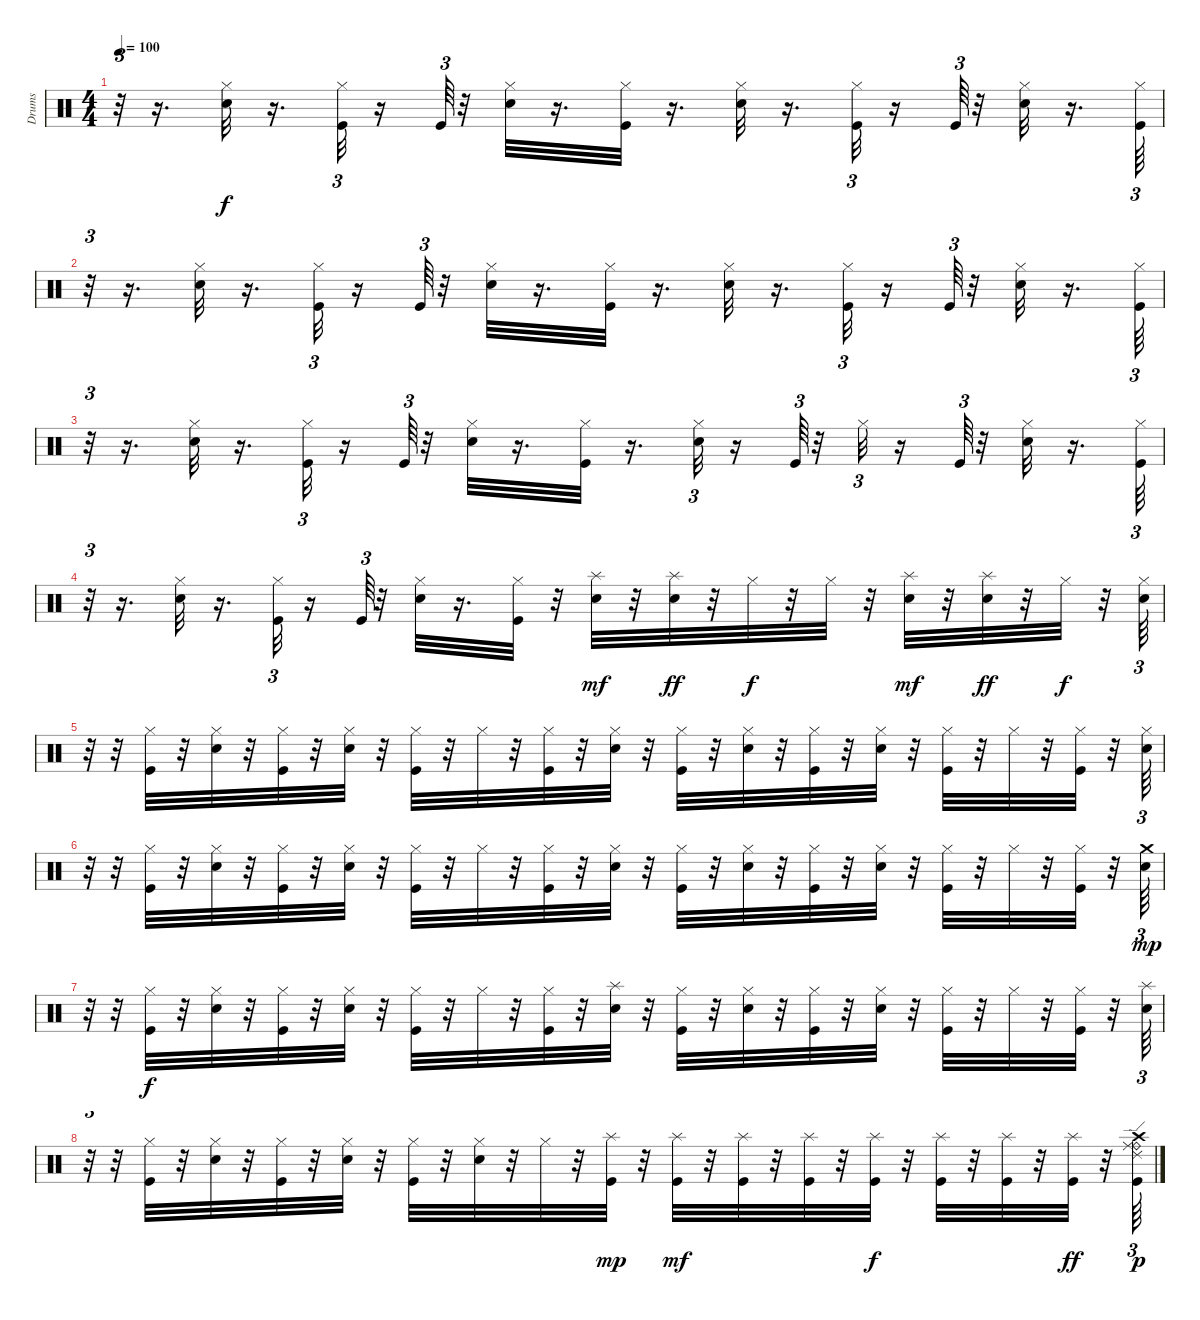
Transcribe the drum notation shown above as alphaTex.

\track ("Drums" "Drums") {instrument percussion}
\staff {score}
\articulation defaults
\ts (4 4)
\tempo 100
\clef neutral
\ks c
r.32{tu (3 2) dy mf} r.16{d} ("Snare (hit) 2" "Hi-Hat (closed)").32{dy f} r.16{d} ("Kick (hit)" "Hi-Hat (closed)").32{tu (3 2)} r.16 "Kick (hit)".64{tu (3 2)} r.32 ("Snare (hit) 2" "Hi-Hat (closed)").32 r.16{d} ("Kick (hit)" "Hi-Hat (closed)").32 r.16{d} ("Snare (hit) 2" "Hi-Hat (closed)").32 r.16{d} ("Kick (hit)" "Hi-Hat (closed)").32{tu (3 2)} r.16 "Kick (hit)".64{tu (3 2)} r.32 ("Snare (hit) 2" "Hi-Hat (closed)").32 r.16{d} ("Kick (hit)" "Hi-Hat (closed)").64{tu (3 2)} |
r.32{tu (3 2)} r.16{d} ("Snare (hit) 2" "Hi-Hat (closed)").32 r.16{d} ("Kick (hit)" "Hi-Hat (closed)").32{tu (3 2)} r.16 "Kick (hit)".64{tu (3 2)} r.32 ("Snare (hit) 2" "Hi-Hat (closed)").32 r.16{d} ("Kick (hit)" "Hi-Hat (closed)").32 r.16{d} ("Snare (hit) 2" "Hi-Hat (closed)").32 r.16{d} ("Kick (hit)" "Hi-Hat (closed)").32{tu (3 2)} r.16 "Kick (hit)".64{tu (3 2)} r.32 ("Snare (hit) 2" "Hi-Hat (closed)").32 r.16{d} ("Kick (hit)" "Hi-Hat (closed)").64{tu (3 2)} |
r.32{tu (3 2)} r.16{d} ("Snare (hit) 2" "Hi-Hat (closed)").32 r.16{d} ("Kick (hit)" "Hi-Hat (closed)").32{tu (3 2)} r.16 "Kick (hit)".64{tu (3 2)} r.32 ("Snare (hit) 2" "Hi-Hat (closed)").32 r.16{d} ("Kick (hit)" "Hi-Hat (closed)").32 r.16{d} ("Snare (hit) 2" "Hi-Hat (closed)").32{tu (3 2)} r.16 "Kick (hit)".64{tu (3 2)} r.32 "Hi-Hat (closed)".32{tu (3 2)} r.16 "Kick (hit)".64{tu (3 2)} r.32 ("Snare (hit) 2" "Hi-Hat (closed)").32 r.16{d} ("Kick (hit)" "Hi-Hat (closed)").64{tu (3 2)} |
r.32{tu (3 2)} r.16{d} ("Snare (hit) 2" "Hi-Hat (closed)").32 r.16{d} ("Kick (hit)" "Hi-Hat (closed)").32{tu (3 2)} r.16 "Kick (hit)".64{tu (3 2)} r.32 ("Snare (hit) 2" "Hi-Hat (closed)").32 r.16{d} ("Kick (hit)" "Hi-Hat (closed)").32 r.32 ("Snare (hit) 2" "Splash (hit)").32{dy mf} r.32 ("Snare (hit) 2" "Splash (hit)").32{dy ff} r.32 "Hi-Hat (closed)".32{dy f} r.32 "Hi-Hat (closed)".32 r.32 ("Snare (hit) 2" "Splash (hit)").32{dy mf} r.32 ("Snare (hit) 2" "Splash (hit)").32{dy ff} r.32 "Hi-Hat (closed)".32{dy f} r.32 ("Snare (hit) 2" "Hi-Hat (closed)").64{tu (3 2)} |
r.32{tu (3 2)} r.32 ("Kick (hit)" "Hi-Hat (closed)").32 r.32 ("Snare (hit) 2" "Hi-Hat (closed)").32 r.32 ("Kick (hit)" "Hi-Hat (closed)").32 r.32 ("Snare (hit) 2" "Hi-Hat (closed)").32 r.32 ("Kick (hit)" "Hi-Hat (closed)").32 r.32 "Hi-Hat (closed)".32 r.32 ("Kick (hit)" "Hi-Hat (closed)").32 r.32 ("Snare (hit) 2" "Hi-Hat (closed)").32 r.32 ("Kick (hit)" "Hi-Hat (closed)").32 r.32 ("Snare (hit) 2" "Hi-Hat (closed)").32 r.32 ("Kick (hit)" "Hi-Hat (closed)").32 r.32 ("Snare (hit) 2" "Hi-Hat (closed)").32 r.32 ("Kick (hit)" "Hi-Hat (closed)").32 r.32 "Hi-Hat (closed)".32 r.32 ("Kick (hit)" "Hi-Hat (closed)").32 r.32 ("Snare (hit) 2" "Hi-Hat (closed)").64{tu (3 2)} |
r.32{tu (3 2)} r.32 ("Kick (hit)" "Hi-Hat (closed)").32 r.32 ("Snare (hit) 2" "Hi-Hat (closed)").32 r.32 ("Kick (hit)" "Hi-Hat (closed)").32 r.32 ("Snare (hit) 2" "Hi-Hat (closed)").32 r.32 ("Kick (hit)" "Hi-Hat (closed)").32 r.32 "Hi-Hat (closed)".32 r.32 ("Kick (hit)" "Hi-Hat (closed)").32 r.32 ("Snare (hit) 2" "Hi-Hat (closed)").32 r.32 ("Kick (hit)" "Hi-Hat (closed)").32 r.32 ("Snare (hit) 2" "Hi-Hat (closed)").32 r.32 ("Kick (hit)" "Hi-Hat (closed)").32 r.32 ("Snare (hit) 2" "Hi-Hat (closed)").32 r.32 ("Kick (hit)" "Hi-Hat (closed)").32 r.32 "Hi-Hat (closed)".32 r.32 ("Kick (hit)" "Hi-Hat (closed)").32 r.32 ("Snare (hit) 2" "Crash medium (hit)").64{tu (3 2) dy mp} |
r.32{tu (3 2)} r.32 ("Kick (hit)" "Hi-Hat (closed)").32{dy f} r.32 ("Snare (hit) 2" "Hi-Hat (closed)").32 r.32 ("Kick (hit)" "Hi-Hat (closed)").32 r.32 ("Snare (hit) 2" "Hi-Hat (closed)").32 r.32 ("Kick (hit)" "Hi-Hat (closed)").32 r.32 "Hi-Hat (closed)".32 r.32 ("Kick (hit)" "Hi-Hat (closed)").32 r.32 ("Snare (hit) 2" "Splash (hit)").32 r.32 ("Kick (hit)" "Hi-Hat (closed)").32 r.32 ("Snare (hit) 2" "Hi-Hat (closed)").32 r.32 ("Kick (hit)" "Hi-Hat (closed)").32 r.32 ("Snare (hit) 2" "Hi-Hat (closed)").32 r.32 ("Kick (hit)" "Hi-Hat (closed)").32 r.32 "Hi-Hat (closed)".32 r.32 ("Kick (hit)" "Hi-Hat (closed)").32 r.32 ("Snare (hit) 2" "Splash (hit)").64{tu (3 2)} |
r.32{tu (3 2)} r.32 ("Kick (hit)" "Hi-Hat (closed)").32 r.32 ("Snare (hit) 2" "Hi-Hat (closed)").32 r.32 ("Kick (hit)" "Hi-Hat (closed)").32 r.32 ("Snare (hit) 2" "Hi-Hat (closed)").32 r.32 ("Kick (hit)" "Hi-Hat (closed)").32 r.32 ("Snare (hit) 2" "Hi-Hat (closed)").32 r.32 "Hi-Hat (closed)".32 r.32 ("Kick (hit)" "Splash (hit)").32{dy mp} r.32 ("Kick (hit)" "Splash (hit)").32{dy mf} r.32 ("Kick (hit)" "Splash (hit)").32 r.32 ("Kick (hit)" "Splash (hit)").32 r.32 ("Kick (hit)" "Splash (hit)").32{dy f} r.32 ("Kick (hit)" "Splash (hit)").32 r.32 ("Kick (hit)" "Splash (hit)").32 r.32 ("Kick (hit)" "Splash (hit)").32{dy ff} r.32 ("Kick (hit)" "Crash high (hit)" "Ride (edge) 2" "Ride (bell)" "Ride (middle)").64{tu (3 2) dy p}
